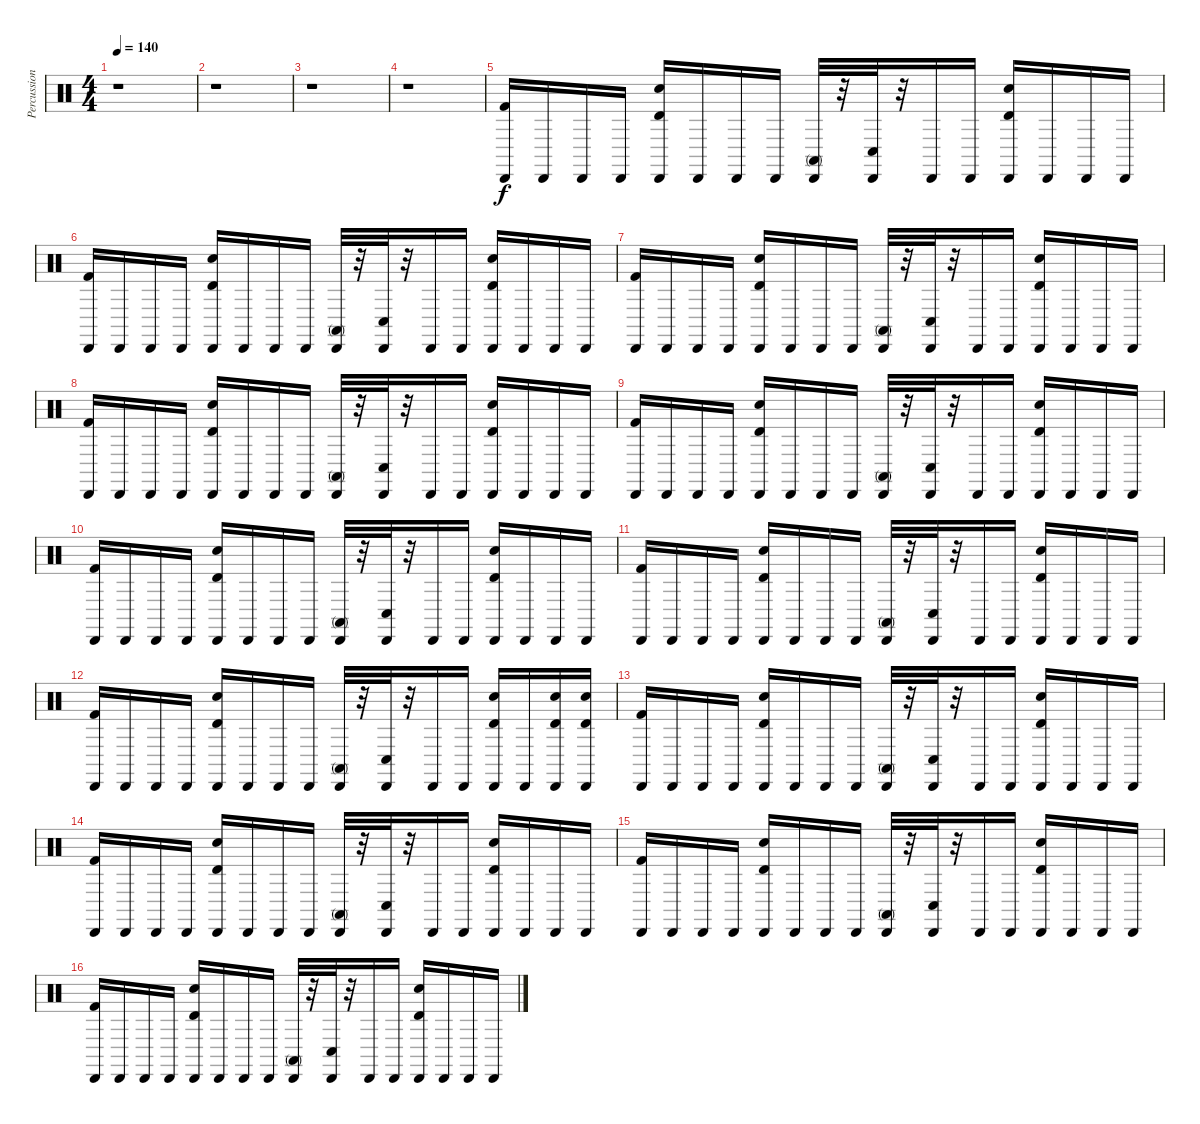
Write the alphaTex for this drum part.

\track ("Percussions" "Percussion") {instrument percussion}
\staff {score}
\articulation defaults
\ts (4 4)
\tempo 140
\clef neutral
\ks c
r.1{dy f} |
r.1 |
r.1 |
r.1 |
("Kick (hit) 2" "Cabasa (hit)").16 "Cabasa (hit)".16 "Cabasa (hit)".16 "Cabasa (hit)".16 ("Timbale high (hit)" "Electric Snare (hit)" "Cabasa (hit)").16 "Cabasa (hit)".16 "Cabasa (hit)".16 "Cabasa (hit)".16 ("Conga high (mute)" "Cabasa (hit)").32 r.32 ("Conga low (hit)" "Cabasa (hit)").32 r.32 "Cabasa (hit)".16 "Cabasa (hit)".16 ("Electric Snare (hit)" "Timbale high (hit)" "Cabasa (hit)").16 "Cabasa (hit)".16 "Cabasa (hit)".16 "Cabasa (hit)".16 |
("Kick (hit) 2" "Cabasa (hit)").16 "Cabasa (hit)".16 "Cabasa (hit)".16 "Cabasa (hit)".16 ("Timbale high (hit)" "Electric Snare (hit)" "Cabasa (hit)").16 "Cabasa (hit)".16 "Cabasa (hit)".16 "Cabasa (hit)".16 ("Conga high (mute)" "Cabasa (hit)").32 r.32 ("Conga low (hit)" "Cabasa (hit)").32 r.32 "Cabasa (hit)".16 "Cabasa (hit)".16 ("Electric Snare (hit)" "Timbale high (hit)" "Cabasa (hit)").16 "Cabasa (hit)".16 "Cabasa (hit)".16 "Cabasa (hit)".16 |
("Kick (hit) 2" "Cabasa (hit)").16 "Cabasa (hit)".16 "Cabasa (hit)".16 "Cabasa (hit)".16 ("Timbale high (hit)" "Electric Snare (hit)" "Cabasa (hit)").16 "Cabasa (hit)".16 "Cabasa (hit)".16 "Cabasa (hit)".16 ("Conga high (mute)" "Cabasa (hit)").32 r.32 ("Conga low (hit)" "Cabasa (hit)").32 r.32 "Cabasa (hit)".16 "Cabasa (hit)".16 ("Electric Snare (hit)" "Timbale high (hit)" "Cabasa (hit)").16 "Cabasa (hit)".16 "Cabasa (hit)".16 "Cabasa (hit)".16 |
("Kick (hit) 2" "Cabasa (hit)").16 "Cabasa (hit)".16 "Cabasa (hit)".16 "Cabasa (hit)".16 ("Timbale high (hit)" "Electric Snare (hit)" "Cabasa (hit)").16 "Cabasa (hit)".16 "Cabasa (hit)".16 "Cabasa (hit)".16 ("Conga high (mute)" "Cabasa (hit)").32 r.32 ("Conga low (hit)" "Cabasa (hit)").32 r.32 "Cabasa (hit)".16 "Cabasa (hit)".16 ("Electric Snare (hit)" "Timbale high (hit)" "Cabasa (hit)").16 "Cabasa (hit)".16 "Cabasa (hit)".16 "Cabasa (hit)".16 |
("Kick (hit) 2" "Cabasa (hit)").16 "Cabasa (hit)".16 "Cabasa (hit)".16 "Cabasa (hit)".16 ("Timbale high (hit)" "Electric Snare (hit)" "Cabasa (hit)").16 "Cabasa (hit)".16 "Cabasa (hit)".16 "Cabasa (hit)".16 ("Conga high (mute)" "Cabasa (hit)").32 r.32 ("Conga low (hit)" "Cabasa (hit)").32 r.32 "Cabasa (hit)".16 "Cabasa (hit)".16 ("Electric Snare (hit)" "Timbale high (hit)" "Cabasa (hit)").16 "Cabasa (hit)".16 "Cabasa (hit)".16 "Cabasa (hit)".16 |
("Kick (hit) 2" "Cabasa (hit)").16 "Cabasa (hit)".16 "Cabasa (hit)".16 "Cabasa (hit)".16 ("Timbale high (hit)" "Electric Snare (hit)" "Cabasa (hit)").16 "Cabasa (hit)".16 "Cabasa (hit)".16 "Cabasa (hit)".16 ("Conga high (mute)" "Cabasa (hit)").32 r.32 ("Conga low (hit)" "Cabasa (hit)").32 r.32 "Cabasa (hit)".16 "Cabasa (hit)".16 ("Electric Snare (hit)" "Timbale high (hit)" "Cabasa (hit)").16 "Cabasa (hit)".16 "Cabasa (hit)".16 "Cabasa (hit)".16 |
("Kick (hit) 2" "Cabasa (hit)").16 "Cabasa (hit)".16 "Cabasa (hit)".16 "Cabasa (hit)".16 ("Timbale high (hit)" "Electric Snare (hit)" "Cabasa (hit)").16 "Cabasa (hit)".16 "Cabasa (hit)".16 "Cabasa (hit)".16 ("Conga high (mute)" "Cabasa (hit)").32 r.32 ("Conga low (hit)" "Cabasa (hit)").32 r.32 "Cabasa (hit)".16 "Cabasa (hit)".16 ("Electric Snare (hit)" "Timbale high (hit)" "Cabasa (hit)").16 "Cabasa (hit)".16 "Cabasa (hit)".16 "Cabasa (hit)".16 |
("Kick (hit) 2" "Cabasa (hit)").16 "Cabasa (hit)".16 "Cabasa (hit)".16 "Cabasa (hit)".16 ("Timbale high (hit)" "Electric Snare (hit)" "Cabasa (hit)").16 "Cabasa (hit)".16 "Cabasa (hit)".16 "Cabasa (hit)".16 ("Conga high (mute)" "Cabasa (hit)").32 r.32 ("Conga low (hit)" "Cabasa (hit)").32 r.32 "Cabasa (hit)".16 "Cabasa (hit)".16 ("Electric Snare (hit)" "Timbale high (hit)" "Cabasa (hit)").16 "Cabasa (hit)".16 ("Timbale high (hit)" "Electric Snare (hit)" "Cabasa (hit)").16 ("Timbale high (hit)" "Electric Snare (hit)" "Cabasa (hit)").16 |
("Kick (hit) 2" "Cabasa (hit)").16 "Cabasa (hit)".16 "Cabasa (hit)".16 "Cabasa (hit)".16 ("Timbale high (hit)" "Electric Snare (hit)" "Cabasa (hit)").16 "Cabasa (hit)".16 "Cabasa (hit)".16 "Cabasa (hit)".16 ("Conga high (mute)" "Cabasa (hit)").32 r.32 ("Conga low (hit)" "Cabasa (hit)").32 r.32 "Cabasa (hit)".16 "Cabasa (hit)".16 ("Electric Snare (hit)" "Timbale high (hit)" "Cabasa (hit)").16 "Cabasa (hit)".16 "Cabasa (hit)".16 "Cabasa (hit)".16 |
("Kick (hit) 2" "Cabasa (hit)").16 "Cabasa (hit)".16 "Cabasa (hit)".16 "Cabasa (hit)".16 ("Timbale high (hit)" "Electric Snare (hit)" "Cabasa (hit)").16 "Cabasa (hit)".16 "Cabasa (hit)".16 "Cabasa (hit)".16 ("Conga high (mute)" "Cabasa (hit)").32 r.32 ("Conga low (hit)" "Cabasa (hit)").32 r.32 "Cabasa (hit)".16 "Cabasa (hit)".16 ("Electric Snare (hit)" "Timbale high (hit)" "Cabasa (hit)").16 "Cabasa (hit)".16 "Cabasa (hit)".16 "Cabasa (hit)".16 |
("Kick (hit) 2" "Cabasa (hit)").16 "Cabasa (hit)".16 "Cabasa (hit)".16 "Cabasa (hit)".16 ("Timbale high (hit)" "Electric Snare (hit)" "Cabasa (hit)").16 "Cabasa (hit)".16 "Cabasa (hit)".16 "Cabasa (hit)".16 ("Conga high (mute)" "Cabasa (hit)").32 r.32 ("Conga low (hit)" "Cabasa (hit)").32 r.32 "Cabasa (hit)".16 "Cabasa (hit)".16 ("Electric Snare (hit)" "Timbale high (hit)" "Cabasa (hit)").16 "Cabasa (hit)".16 "Cabasa (hit)".16 "Cabasa (hit)".16 |
("Kick (hit) 2" "Cabasa (hit)").16 "Cabasa (hit)".16 "Cabasa (hit)".16 "Cabasa (hit)".16 ("Timbale high (hit)" "Electric Snare (hit)" "Cabasa (hit)").16 "Cabasa (hit)".16 "Cabasa (hit)".16 "Cabasa (hit)".16 ("Conga high (mute)" "Cabasa (hit)").32 r.32 ("Conga low (hit)" "Cabasa (hit)").32 r.32 "Cabasa (hit)".16 "Cabasa (hit)".16 ("Electric Snare (hit)" "Timbale high (hit)" "Cabasa (hit)").16 "Cabasa (hit)".16 "Cabasa (hit)".16 "Cabasa (hit)".16
